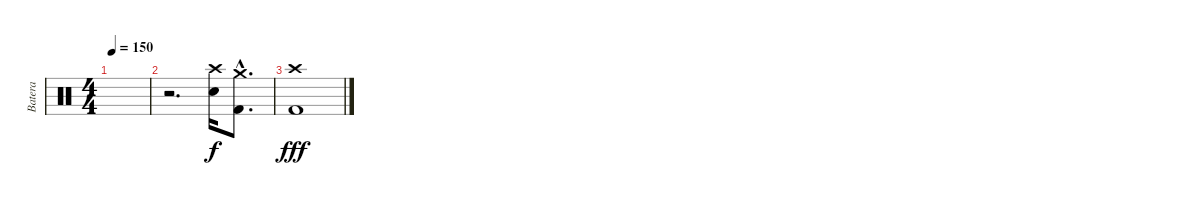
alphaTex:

\track ("Batera" "Batera") {instrument percussion}
\staff {score}
\articulation defaults
\ts (4 4)
\tempo 150
\clef neutral
\ks c
|
r.2{d} ("Crash high (hit)" "Snare (hit) 2").16 ("Crash medium (hit)"{hac} "Kick (hit) 2"{hac}).8{d} |
("Crash high (hit)" "Kick (hit) 2").1{dy fff}
